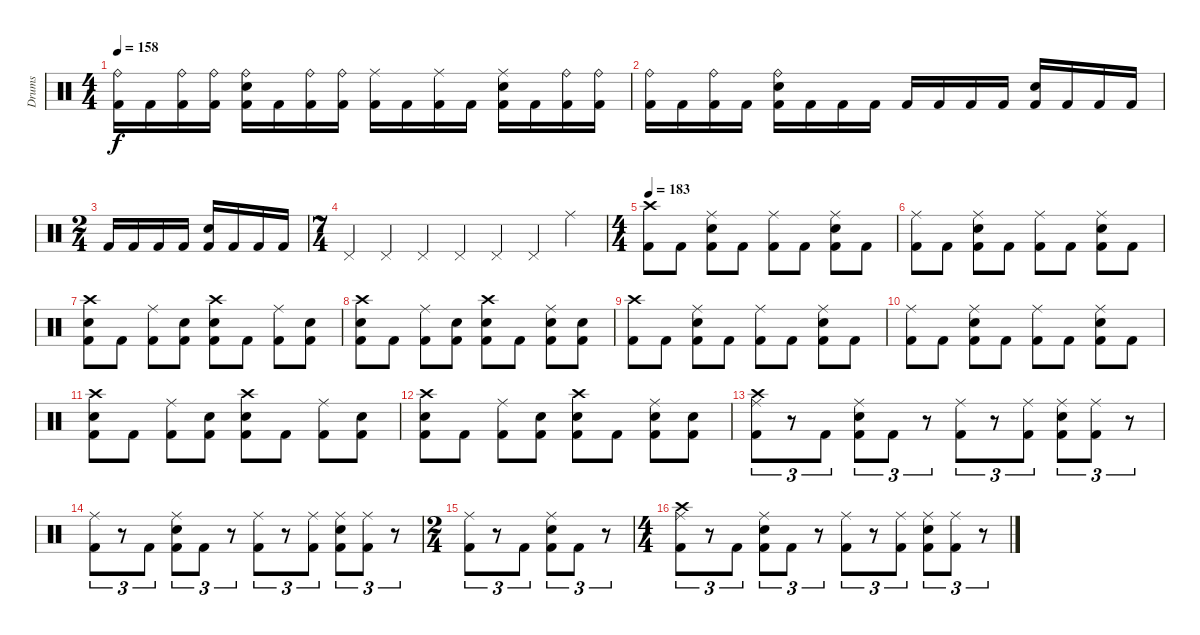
\track ("Drums" "Drums") {instrument percussion}
\staff {score}
\articulation defaults
\ts (4 4)
\tempo 158
\clef neutral
\ks c
("Ride (bell)" "Kick (hit) 2").16{dy f} "Kick (hit) 2".16 ("Ride (bell)" "Kick (hit) 2").16 ("Ride (bell)" "Kick (hit) 2").16 ("Ride (bell)" "Snare (hit) 2" "Kick (hit) 2").16 "Kick (hit) 2".16 ("Ride (bell)" "Kick (hit) 2").16 ("Ride (bell)" "Kick (hit) 2").16 ("Ride (middle)" "Kick (hit) 2").16 "Kick (hit) 2".16 ("Ride (middle)" "Kick (hit) 2").16 "Kick (hit) 2".16 ("Ride (middle)" "Snare (hit) 2" "Kick (hit) 2").16 "Kick (hit) 2".16 ("Ride (bell)" "Kick (hit) 2").16 ("Ride (bell)" "Kick (hit) 2").16 |
("Ride (bell)" "Kick (hit) 2").16 "Kick (hit) 2".16 ("Ride (bell)" "Kick (hit) 2").16 "Kick (hit) 2".16 ("Ride (bell)" "Snare (hit) 2" "Kick (hit) 2").16 "Kick (hit) 2".16 "Kick (hit) 2".16 "Kick (hit) 2".16 "Kick (hit) 2".16 "Kick (hit) 2".16 "Kick (hit) 2".16 "Kick (hit) 2".16 ("Snare (hit) 2" "Kick (hit) 2").16 "Kick (hit) 2".16 "Kick (hit) 2".16 "Kick (hit) 2".16 |
\ts (2 4)
"Kick (hit) 2".16 "Kick (hit) 2".16 "Kick (hit) 2".16 "Kick (hit) 2".16 ("Snare (hit) 2" "Kick (hit) 2").16 "Kick (hit) 2".16 "Kick (hit) 2".16 "Kick (hit) 2".16 |
\ts (7 4)
"Pedal Hi-Hat (hit)".4 "Pedal Hi-Hat (hit)".4 "Pedal Hi-Hat (hit)".4 "Pedal Hi-Hat (hit)".4 "Pedal Hi-Hat (hit)".4 "Pedal Hi-Hat (hit)".4 "Ride (middle)".4 |
\ts (4 4)
\tempo 183
("Crash high (hit)" "Kick (hit) 2").8 "Kick (hit) 2".8 ("Ride (middle)" "Snare (hit) 2" "Kick (hit) 2").8 "Kick (hit) 2".8 ("Ride (middle)" "Kick (hit) 2").8 "Kick (hit) 2".8 ("Ride (middle)" "Snare (hit) 2" "Kick (hit) 2").8 "Kick (hit) 2".8 |
("Ride (middle)" "Kick (hit) 2").8 "Kick (hit) 2".8 ("Ride (middle)" "Snare (hit) 2" "Kick (hit) 2").8 "Kick (hit) 2".8 ("Ride (middle)" "Kick (hit) 2").8 "Kick (hit) 2".8 ("Ride (middle)" "Snare (hit) 2" "Kick (hit) 2").8 "Kick (hit) 2".8 |
("Crash high (hit)" "Snare (hit) 2" "Kick (hit) 2").8 "Kick (hit) 2".8 ("Ride (middle)" "Kick (hit) 2").8 ("Snare (hit) 2" "Kick (hit) 2").8 ("Crash high (hit)" "Snare (hit) 2" "Kick (hit) 2").8 "Kick (hit) 2".8 ("Ride (middle)" "Kick (hit) 2").8 ("Snare (hit) 2" "Kick (hit) 2").8 |
("Crash high (hit)" "Snare (hit) 2" "Kick (hit) 2").8 "Kick (hit) 2".8 ("Ride (middle)" "Kick (hit) 2").8 ("Snare (hit) 2" "Kick (hit) 2").8 ("Crash high (hit)" "Snare (hit) 2" "Kick (hit) 2").8 "Kick (hit) 2".8 ("Ride (middle)" "Snare (hit) 2" "Kick (hit) 2").8 ("Snare (hit) 2" "Kick (hit) 2").8 |
("Crash high (hit)" "Kick (hit) 2").8 "Kick (hit) 2".8 ("Ride (middle)" "Snare (hit) 2" "Kick (hit) 2").8 "Kick (hit) 2".8 ("Ride (middle)" "Kick (hit) 2").8 "Kick (hit) 2".8 ("Ride (middle)" "Snare (hit) 2" "Kick (hit) 2").8 "Kick (hit) 2".8 |
("Ride (middle)" "Kick (hit) 2").8 "Kick (hit) 2".8 ("Ride (middle)" "Snare (hit) 2" "Kick (hit) 2").8 "Kick (hit) 2".8 ("Ride (middle)" "Kick (hit) 2").8 "Kick (hit) 2".8 ("Ride (middle)" "Snare (hit) 2" "Kick (hit) 2").8 "Kick (hit) 2".8 |
("Crash high (hit)" "Snare (hit) 2" "Kick (hit) 2").8 "Kick (hit) 2".8 ("Ride (middle)" "Kick (hit) 2").8 ("Snare (hit) 2" "Kick (hit) 2").8 ("Crash high (hit)" "Snare (hit) 2" "Kick (hit) 2").8 "Kick (hit) 2".8 ("Ride (middle)" "Kick (hit) 2").8 ("Snare (hit) 2" "Kick (hit) 2").8 |
("Crash high (hit)" "Snare (hit) 2" "Kick (hit) 2").8 "Kick (hit) 2".8 ("Ride (middle)" "Kick (hit) 2").8 ("Snare (hit) 2" "Kick (hit) 2").8 ("Crash high (hit)" "Snare (hit) 2" "Kick (hit) 2").8 "Kick (hit) 2".8 ("Ride (middle)" "Snare (hit) 2" "Kick (hit) 2").8 ("Snare (hit) 2" "Kick (hit) 2").8 |
("Crash high (hit)" "Ride (middle)" "Kick (hit) 2").8{tu (3 2)} r.8{tu (3 2)} "Kick (hit) 2".8{tu (3 2)} ("Ride (middle)" "Snare (hit) 2" "Kick (hit) 2").8{tu (3 2)} "Kick (hit) 2".8{tu (3 2)} r.8{tu (3 2)} ("Ride (middle)" "Kick (hit) 2").8{tu (3 2)} r.8{tu (3 2)} ("Ride (middle)" "Kick (hit) 2").8{tu (3 2)} ("Ride (middle)" "Snare (hit) 2" "Kick (hit) 2").8{tu (3 2)} ("Ride (middle)" "Kick (hit) 2").8{tu (3 2)} r.8{tu (3 2)} |
("Ride (middle)" "Kick (hit) 2").8{tu (3 2)} r.8{tu (3 2)} "Kick (hit) 2".8{tu (3 2)} ("Ride (middle)" "Snare (hit) 2" "Kick (hit) 2").8{tu (3 2)} "Kick (hit) 2".8{tu (3 2)} r.8{tu (3 2)} ("Ride (middle)" "Kick (hit) 2").8{tu (3 2)} r.8{tu (3 2)} ("Ride (middle)" "Kick (hit) 2").8{tu (3 2)} ("Ride (middle)" "Snare (hit) 2" "Kick (hit) 2").8{tu (3 2)} ("Ride (middle)" "Kick (hit) 2").8{tu (3 2)} r.8{tu (3 2)} |
\ts (2 4)
("Ride (middle)" "Kick (hit) 2").8{tu (3 2)} r.8{tu (3 2)} "Kick (hit) 2".8{tu (3 2)} ("Ride (middle)" "Snare (hit) 2" "Kick (hit) 2").8{tu (3 2)} "Kick (hit) 2".8{tu (3 2)} r.8{tu (3 2)} |
\ts (4 4)
("Crash high (hit)" "Ride (middle)" "Kick (hit) 2").8{tu (3 2)} r.8{tu (3 2)} "Kick (hit) 2".8{tu (3 2)} ("Ride (middle)" "Snare (hit) 2" "Kick (hit) 2").8{tu (3 2)} "Kick (hit) 2".8{tu (3 2)} r.8{tu (3 2)} ("Ride (middle)" "Kick (hit) 2").8{tu (3 2)} r.8{tu (3 2)} ("Ride (middle)" "Kick (hit) 2").8{tu (3 2)} ("Ride (middle)" "Snare (hit) 2" "Kick (hit) 2").8{tu (3 2)} ("Ride (middle)" "Kick (hit) 2").8{tu (3 2)} r.8{tu (3 2)}
